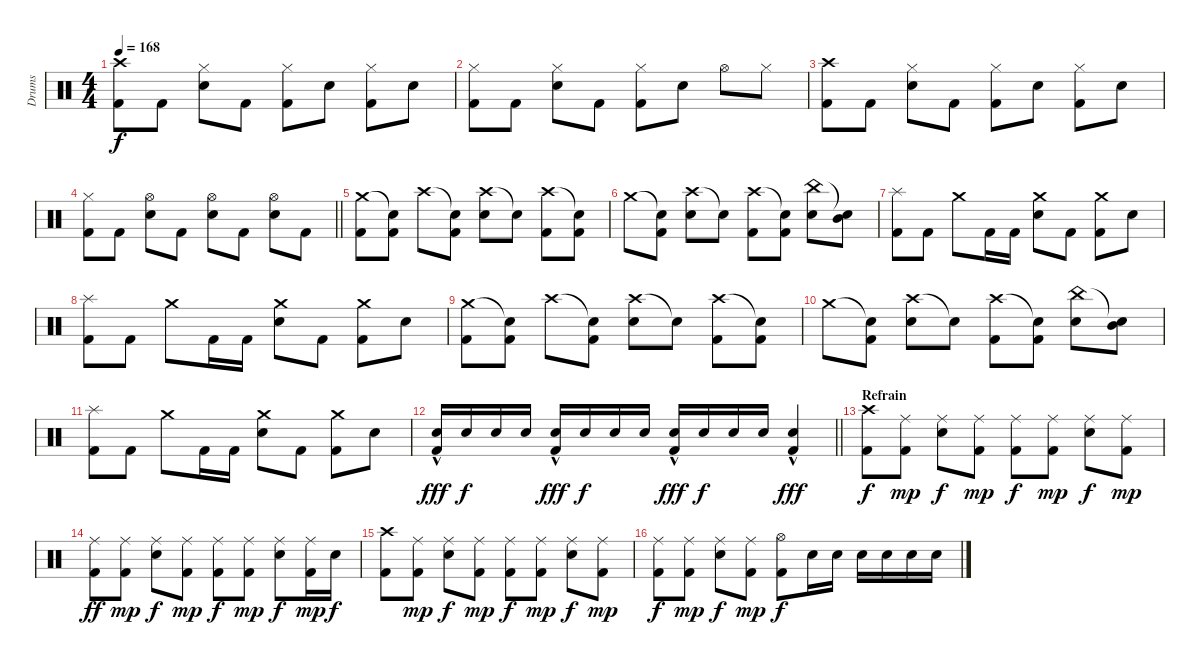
\track ("Drums" "Drums") {instrument percussion}
\staff {score}
\articulation defaults
\ts (4 4)
\tempo 168
\clef neutral
\ks c
("Crash high (hit)" "Kick (hit) 2").8{dy f} "Kick (hit) 2".8 ("Hi-Hat (closed)" "Electric Snare (hit)").8 "Kick (hit) 2".8 ("Hi-Hat (closed)" "Kick (hit) 2").8 "Electric Snare (hit)".8 ("Hi-Hat (closed)" "Kick (hit) 2").8 "Electric Snare (hit)".8 |
("Hi-Hat (closed)" "Kick (hit) 2").8 "Kick (hit) 2".8 ("Hi-Hat (closed)" "Electric Snare (hit)").8 "Kick (hit) 2".8 ("Hi-Hat (closed)" "Kick (hit) 2").8 "Electric Snare (hit)".8 "Hi-Hat (open)".8 "Hi-Hat (closed)".8 |
("Crash high (hit)" "Kick (hit) 2").8 "Kick (hit) 2".8 ("Hi-Hat (closed)" "Electric Snare (hit)").8 "Kick (hit) 2".8 ("Hi-Hat (closed)" "Kick (hit) 2").8 "Electric Snare (hit)".8 ("Hi-Hat (closed)" "Kick (hit) 2").8 "Electric Snare (hit)".8 |
\barLineRight lightlight
("Hi-Hat (closed)" "Kick (hit) 2").8 "Kick (hit) 2".8 ("Hi-Hat (open)" "Electric Snare (hit)").8 "Kick (hit) 2".8 ("Hi-Hat (open)" "Electric Snare (hit)").8 "Kick (hit) 2".8 ("Hi-Hat (open)" "Electric Snare (hit)").8 "Kick (hit) 2".8 |
\section ("" "")
("Crash medium (hit)" "Kick (hit) 2").8 ("Snare (hit)"{t} "Kick (hit) 2").8 "Crash high (hit)".8 ("Snare (hit)"{t} "Kick (hit) 2").8 ("Crash high (hit)" "Electric Snare (hit)").8 "Snare (hit)"{t}.8 ("Crash high (hit)" "Kick (hit) 2").8 ("Snare (hit)"{t} "Kick (hit) 2").8 |
"Crash medium (hit)".8 ("Snare (hit)"{t} "Kick (hit) 2").8 ("Crash high (hit)" "Electric Snare (hit)").8 "Snare (hit)"{t}.8 ("Crash high (hit)" "Kick (hit) 2").8 ("Snare (hit)"{t} "Kick (hit) 2").8 ("China (hit)" "Electric Snare (hit)").8 ("Snare (hit)"{t} "Mid Tom (hit)").8 |
("Splash (hit)" "Kick (hit) 2").8 "Kick (hit) 2".8 "Crash medium (hit)".8 "Kick (hit) 2".16 "Kick (hit) 2".16 ("Crash medium (hit)" "Electric Snare (hit)").8 "Kick (hit) 2".8 ("Crash medium (hit)" "Kick (hit) 2").8 "Electric Snare (hit)".8 |
("Splash (hit)" "Kick (hit) 2").8 "Kick (hit) 2".8 "Crash medium (hit)".8 "Kick (hit) 2".16 "Kick (hit) 2".16 ("Crash medium (hit)" "Electric Snare (hit)").8 "Kick (hit) 2".8 ("Crash medium (hit)" "Kick (hit) 2").8 "Electric Snare (hit)".8 |
("Crash medium (hit)" "Kick (hit) 2").8 ("Snare (hit)"{t} "Kick (hit) 2").8 "Crash high (hit)".8 ("Snare (hit)"{t} "Kick (hit) 2").8 ("Crash high (hit)" "Electric Snare (hit)").8 "Snare (hit)"{t}.8 ("Crash high (hit)" "Kick (hit) 2").8 ("Snare (hit)"{t} "Kick (hit) 2").8 |
"Crash medium (hit)".8 ("Snare (hit)"{t} "Kick (hit) 2").8 ("Crash high (hit)" "Electric Snare (hit)").8 "Snare (hit)"{t}.8 ("Crash high (hit)" "Kick (hit) 2").8 ("Snare (hit)"{t} "Kick (hit) 2").8 ("China (hit)" "Electric Snare (hit)").8 ("Snare (hit)"{t} "Mid Tom (hit)").8 |
("Splash (hit)" "Kick (hit) 2").8 "Kick (hit) 2".8 "Crash medium (hit)".8 "Kick (hit) 2".16 "Kick (hit) 2".16 ("Crash medium (hit)" "Electric Snare (hit)").8 "Kick (hit) 2".8 ("Crash medium (hit)" "Kick (hit) 2").8 "Electric Snare (hit)".8 |
\barLineRight lightlight
("Electric Snare (hit)"{hac} "Kick (hit) 2").16{dy fff} "Electric Snare (hit)".16{dy f} "Electric Snare (hit)".16 "Electric Snare (hit)".16 ("Electric Snare (hit)"{hac} "Kick (hit) 2").16{dy fff} "Electric Snare (hit)".16{dy f} "Electric Snare (hit)".16 "Electric Snare (hit)".16 ("Electric Snare (hit)"{hac} "Kick (hit) 2").16{dy fff} "Electric Snare (hit)".16{dy f} "Electric Snare (hit)".16 "Electric Snare (hit)".16 ("Electric Snare (hit)"{hac} "Kick (hit) 2").4{dy fff} |
\section ("" "Refrain")
("Crash high (hit)" "Kick (hit) 2").8{dy f} ("Ride (middle)" "Kick (hit) 2").8{dy mp} ("Ride (middle)" "Electric Snare (hit)").8{dy f} ("Ride (middle)" "Kick (hit) 2").8{dy mp} ("Ride (middle)" "Kick (hit) 2").8{dy f} ("Ride (middle)" "Kick (hit) 2").8{dy mp} ("Ride (middle)" "Electric Snare (hit)").8{dy f} ("Ride (middle)" "Kick (hit) 2").8{dy mp} |
("Ride (middle)" "Kick (hit) 2").8{dy ff} ("Ride (middle)" "Kick (hit) 2").8{dy mp} ("Ride (middle)" "Electric Snare (hit)").8{dy f} ("Ride (middle)" "Kick (hit) 2").8{dy mp} ("Ride (middle)" "Kick (hit) 2").8{dy f} ("Ride (middle)" "Kick (hit) 2").8{dy mp} ("Ride (middle)" "Electric Snare (hit)").8{dy f} ("Ride (middle)" "Kick (hit) 2").16{dy mp} "Electric Snare (hit)".16{dy f} |
("Crash high (hit)" "Kick (hit) 2").8 ("Ride (middle)" "Kick (hit) 2").8{dy mp} ("Ride (middle)" "Electric Snare (hit)").8{dy f} ("Ride (middle)" "Kick (hit) 2").8{dy mp} ("Ride (middle)" "Kick (hit) 2").8{dy f} ("Ride (middle)" "Kick (hit) 2").8{dy mp} ("Ride (middle)" "Electric Snare (hit)").8{dy f} ("Ride (middle)" "Kick (hit) 2").8{dy mp} |
("Ride (middle)" "Kick (hit) 2").8{dy f} ("Ride (middle)" "Kick (hit) 2").8{dy mp} ("Ride (middle)" "Electric Snare (hit)").8{dy f} ("Ride (middle)" "Kick (hit) 2").8{dy mp} ("Hi-Hat (open)" "Kick (hit) 2").8{dy f} "Electric Snare (hit)".16 "Electric Snare (hit)".16 "Electric Snare (hit)".16 "Electric Snare (hit)".16 "Electric Snare (hit)".16 "Electric Snare (hit)".16
